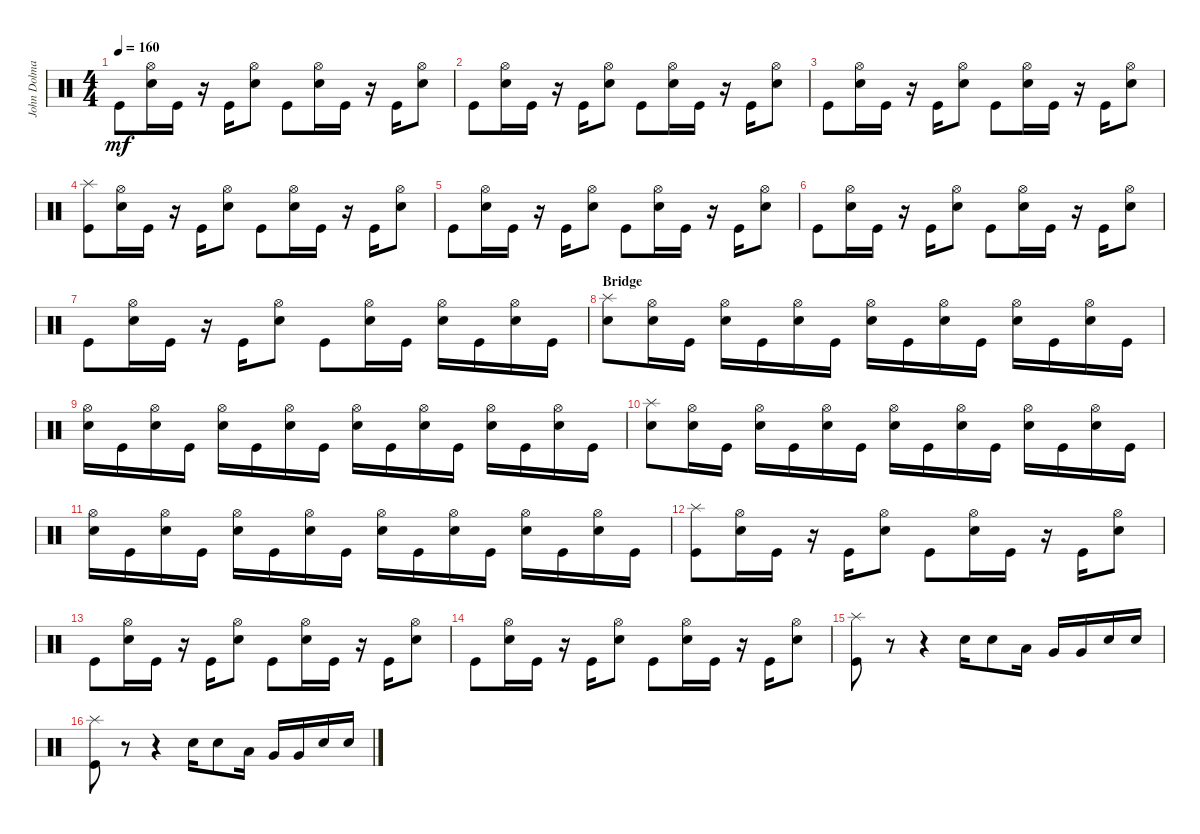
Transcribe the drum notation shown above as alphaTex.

\track ("John Dolmayan" "John Dolma") {instrument percussion}
\staff {score}
\articulation defaults
\ts (4 4)
\tempo 160
\clef neutral
\ks c "Kick (hit)".8{dy mf}
("Hi-Hat (open)" "Snare (hit) 2").16 "Kick (hit)".16 r.16 "Kick (hit)".16 ("Hi-Hat (open)" "Snare (hit) 2").8 "Kick (hit)".8 ("Hi-Hat (open)" "Snare (hit) 2").16 "Kick (hit)".16 r.16 "Kick (hit)".16 ("Hi-Hat (open)" "Snare (hit) 2").8 |
"Kick (hit)".8 ("Hi-Hat (open)" "Snare (hit) 2").16 "Kick (hit)".16 r.16 "Kick (hit)".16 ("Hi-Hat (open)" "Snare (hit) 2").8 "Kick (hit)".8 ("Hi-Hat (open)" "Snare (hit) 2").16 "Kick (hit)".16 r.16 "Kick (hit)".16 ("Hi-Hat (open)" "Snare (hit) 2").8 |
"Kick (hit)".8 ("Hi-Hat (open)" "Snare (hit) 2").16 "Kick (hit)".16 r.16 "Kick (hit)".16 ("Hi-Hat (open)" "Snare (hit) 2").8 "Kick (hit)".8 ("Hi-Hat (open)" "Snare (hit) 2").16 "Kick (hit)".16 r.16 "Kick (hit)".16 ("Hi-Hat (open)" "Snare (hit) 2").8 |
("Kick (hit)" "Splash (hit)").8 ("Hi-Hat (open)" "Snare (hit) 2").16 "Kick (hit)".16 r.16 "Kick (hit)".16 ("Hi-Hat (open)" "Snare (hit) 2").8 "Kick (hit)".8 ("Hi-Hat (open)" "Snare (hit) 2").16 "Kick (hit)".16 r.16 "Kick (hit)".16 ("Hi-Hat (open)" "Snare (hit) 2").8 |
"Kick (hit)".8 ("Hi-Hat (open)" "Snare (hit) 2").16 "Kick (hit)".16 r.16 "Kick (hit)".16 ("Hi-Hat (open)" "Snare (hit) 2").8 "Kick (hit)".8 ("Hi-Hat (open)" "Snare (hit) 2").16 "Kick (hit)".16 r.16 "Kick (hit)".16 ("Hi-Hat (open)" "Snare (hit) 2").8 |
"Kick (hit)".8 ("Hi-Hat (open)" "Snare (hit) 2").16 "Kick (hit)".16 r.16 "Kick (hit)".16 ("Hi-Hat (open)" "Snare (hit) 2").8 "Kick (hit)".8 ("Hi-Hat (open)" "Snare (hit) 2").16 "Kick (hit)".16 r.16 "Kick (hit)".16 ("Hi-Hat (open)" "Snare (hit) 2").8 |
"Kick (hit)".8 ("Hi-Hat (open)" "Snare (hit) 2").16 "Kick (hit)".16 r.16 "Kick (hit)".16 ("Hi-Hat (open)" "Snare (hit) 2").8 "Kick (hit)".8 ("Hi-Hat (open)" "Snare (hit) 2").16 "Kick (hit)".16 ("Snare (hit) 2" "Hi-Hat (open)").16 "Kick (hit)".16 ("Snare (hit) 2" "Hi-Hat (open)").16 "Kick (hit)".16 |
\section ("" "Bridge")
("Snare (hit) 2" "Splash (hit)").8 ("Snare (hit) 2" "Hi-Hat (open)").16 "Kick (hit)".16 ("Snare (hit) 2" "Hi-Hat (open)").16 "Kick (hit)".16 ("Snare (hit) 2" "Hi-Hat (open)").16 "Kick (hit)".16 ("Snare (hit) 2" "Hi-Hat (open)").16 "Kick (hit)".16 ("Snare (hit) 2" "Hi-Hat (open)").16 "Kick (hit)".16 ("Snare (hit) 2" "Hi-Hat (open)").16 "Kick (hit)".16 ("Snare (hit) 2" "Hi-Hat (open)").16 "Kick (hit)".16 |
("Snare (hit) 2" "Hi-Hat (open)").16 "Kick (hit)".16 ("Snare (hit) 2" "Hi-Hat (open)").16 "Kick (hit)".16 ("Snare (hit) 2" "Hi-Hat (open)").16 "Kick (hit)".16 ("Snare (hit) 2" "Hi-Hat (open)").16 "Kick (hit)".16 ("Snare (hit) 2" "Hi-Hat (open)").16 "Kick (hit)".16 ("Snare (hit) 2" "Hi-Hat (open)").16 "Kick (hit)".16 ("Snare (hit) 2" "Hi-Hat (open)").16 "Kick (hit)".16 ("Snare (hit) 2" "Hi-Hat (open)").16 "Kick (hit)".16 |
("Snare (hit) 2" "Splash (hit)").8 ("Snare (hit) 2" "Hi-Hat (open)").16 "Kick (hit)".16 ("Snare (hit) 2" "Hi-Hat (open)").16 "Kick (hit)".16 ("Snare (hit) 2" "Hi-Hat (open)").16 "Kick (hit)".16 ("Snare (hit) 2" "Hi-Hat (open)").16 "Kick (hit)".16 ("Snare (hit) 2" "Hi-Hat (open)").16 "Kick (hit)".16 ("Snare (hit) 2" "Hi-Hat (open)").16 "Kick (hit)".16 ("Snare (hit) 2" "Hi-Hat (open)").16 "Kick (hit)".16 |
("Snare (hit) 2" "Hi-Hat (open)").16 "Kick (hit)".16 ("Snare (hit) 2" "Hi-Hat (open)").16 "Kick (hit)".16 ("Snare (hit) 2" "Hi-Hat (open)").16 "Kick (hit)".16 ("Snare (hit) 2" "Hi-Hat (open)").16 "Kick (hit)".16 ("Snare (hit) 2" "Hi-Hat (open)").16 "Kick (hit)".16 ("Snare (hit) 2" "Hi-Hat (open)").16 "Kick (hit)".16 ("Snare (hit) 2" "Hi-Hat (open)").16 "Kick (hit)".16 ("Snare (hit) 2" "Hi-Hat (open)").16 "Kick (hit)".16 |
("Kick (hit)" "Splash (hit)").8 ("Hi-Hat (open)" "Snare (hit) 2").16 "Kick (hit)".16 r.16 "Kick (hit)".16 ("Hi-Hat (open)" "Snare (hit) 2").8 "Kick (hit)".8 ("Hi-Hat (open)" "Snare (hit) 2").16 "Kick (hit)".16 r.16 "Kick (hit)".16 ("Hi-Hat (open)" "Snare (hit) 2").8 |
"Kick (hit)".8 ("Hi-Hat (open)" "Snare (hit) 2").16 "Kick (hit)".16 r.16 "Kick (hit)".16 ("Hi-Hat (open)" "Snare (hit) 2").8 "Kick (hit)".8 ("Hi-Hat (open)" "Snare (hit) 2").16 "Kick (hit)".16 r.16 "Kick (hit)".16 ("Hi-Hat (open)" "Snare (hit) 2").8 |
"Kick (hit)".8 ("Hi-Hat (open)" "Snare (hit) 2").16 "Kick (hit)".16 r.16 "Kick (hit)".16 ("Hi-Hat (open)" "Snare (hit) 2").8 "Kick (hit)".8 ("Hi-Hat (open)" "Snare (hit) 2").16 "Kick (hit)".16 r.16 "Kick (hit)".16 ("Hi-Hat (open)" "Snare (hit) 2").8 |
("Kick (hit)" "Splash (hit)").8 r.8 r.4 "Snare (hit) 2".16 "Snare (hit) 2".8 "Low Tom (hit)".16 "Very Low Tom (hit)".16 "Very Low Tom (hit)".16 "Snare (hit) 2".16 "Snare (hit) 2".16 |
("Kick (hit)" "Splash (hit)").8 r.8 r.4 "Snare (hit) 2".16 "Snare (hit) 2".8 "Low Tom (hit)".16 "Very Low Tom (hit)".16 "Very Low Tom (hit)".16 "Snare (hit) 2".16 "Snare (hit) 2".16
